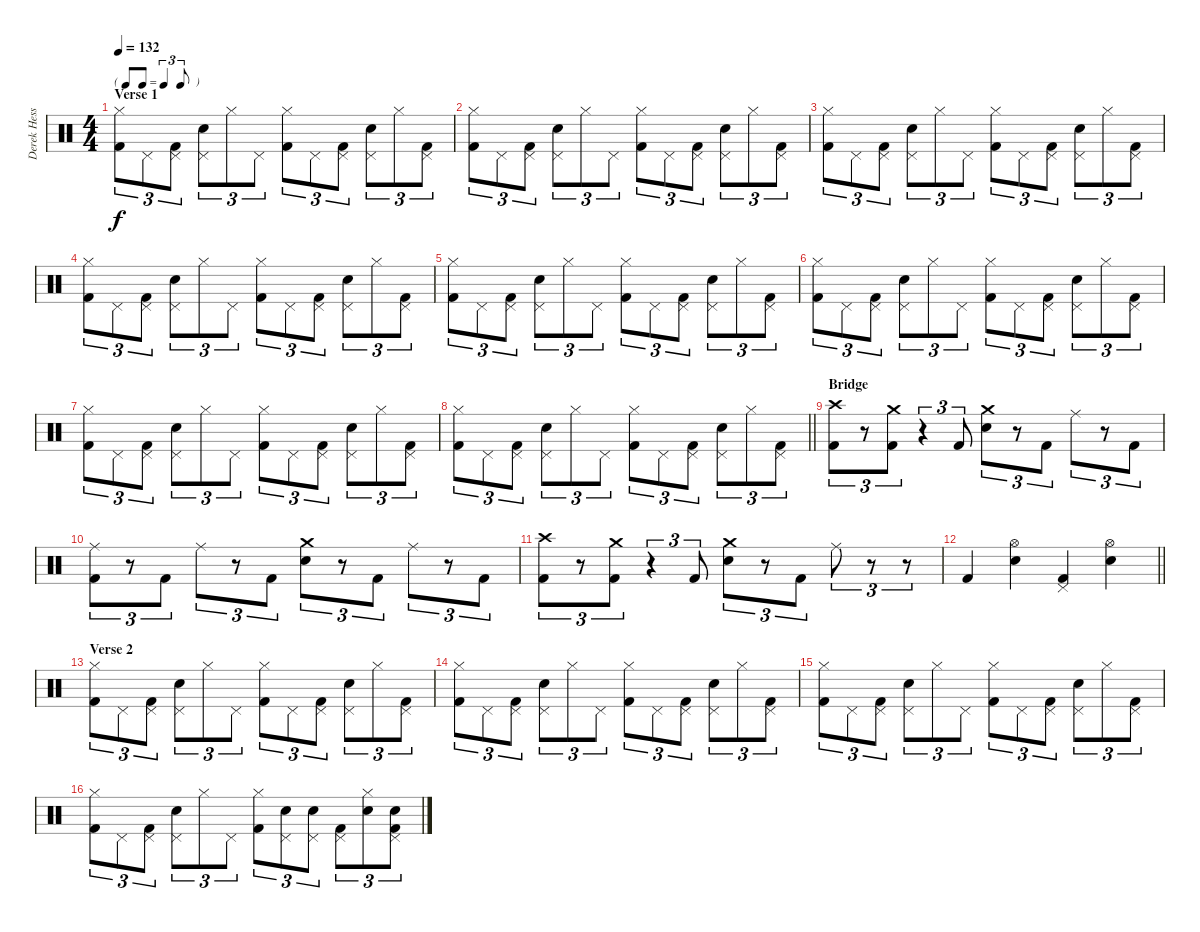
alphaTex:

\track ("Derek Hess (Drums and Percussion)" "Derek Hess") {instrument percussion}
\staff {score}
\articulation defaults
\ts (4 4)
\tf triplet8th
\section ("" "Verse 1")
\tempo 132
\clef neutral
\ks c
("Hi-Hat (closed)" "Kick (hit) 2").8{tu (3 2) dy f} "Pedal Hi-Hat (hit)".8{tu (3 2)} ("Pedal Hi-Hat (hit)" "Kick (hit) 2").8{tu (3 2)} ("Snare (hit) 2" "Pedal Hi-Hat (hit)").8{tu (3 2)} "Hi-Hat (closed)".8{tu (3 2)} "Pedal Hi-Hat (hit)".8{tu (3 2)} ("Hi-Hat (closed)" "Kick (hit) 2").8{tu (3 2)} "Pedal Hi-Hat (hit)".8{tu (3 2)} ("Pedal Hi-Hat (hit)" "Kick (hit) 2").8{tu (3 2)} ("Snare (hit) 2" "Pedal Hi-Hat (hit)").8{tu (3 2)} "Hi-Hat (closed)".8{tu (3 2)} ("Pedal Hi-Hat (hit)" "Kick (hit) 2").8{tu (3 2)} |
("Hi-Hat (closed)" "Kick (hit) 2").8{tu (3 2)} "Pedal Hi-Hat (hit)".8{tu (3 2)} ("Pedal Hi-Hat (hit)" "Kick (hit) 2").8{tu (3 2)} ("Snare (hit) 2" "Pedal Hi-Hat (hit)").8{tu (3 2)} "Hi-Hat (closed)".8{tu (3 2)} "Pedal Hi-Hat (hit)".8{tu (3 2)} ("Hi-Hat (closed)" "Kick (hit) 2").8{tu (3 2)} "Pedal Hi-Hat (hit)".8{tu (3 2)} ("Pedal Hi-Hat (hit)" "Kick (hit) 2").8{tu (3 2)} ("Snare (hit) 2" "Pedal Hi-Hat (hit)").8{tu (3 2)} "Hi-Hat (closed)".8{tu (3 2)} ("Pedal Hi-Hat (hit)" "Kick (hit) 2").8{tu (3 2)} |
("Hi-Hat (closed)" "Kick (hit) 2").8{tu (3 2)} "Pedal Hi-Hat (hit)".8{tu (3 2)} ("Pedal Hi-Hat (hit)" "Kick (hit) 2").8{tu (3 2)} ("Snare (hit) 2" "Pedal Hi-Hat (hit)").8{tu (3 2)} "Hi-Hat (closed)".8{tu (3 2)} "Pedal Hi-Hat (hit)".8{tu (3 2)} ("Hi-Hat (closed)" "Kick (hit) 2").8{tu (3 2)} "Pedal Hi-Hat (hit)".8{tu (3 2)} ("Pedal Hi-Hat (hit)" "Kick (hit) 2").8{tu (3 2)} ("Snare (hit) 2" "Pedal Hi-Hat (hit)").8{tu (3 2)} "Hi-Hat (closed)".8{tu (3 2)} ("Pedal Hi-Hat (hit)" "Kick (hit) 2").8{tu (3 2)} |
("Hi-Hat (closed)" "Kick (hit) 2").8{tu (3 2)} "Pedal Hi-Hat (hit)".8{tu (3 2)} ("Pedal Hi-Hat (hit)" "Kick (hit) 2").8{tu (3 2)} ("Snare (hit) 2" "Pedal Hi-Hat (hit)").8{tu (3 2)} "Hi-Hat (closed)".8{tu (3 2)} "Pedal Hi-Hat (hit)".8{tu (3 2)} ("Hi-Hat (closed)" "Kick (hit) 2").8{tu (3 2)} "Pedal Hi-Hat (hit)".8{tu (3 2)} ("Pedal Hi-Hat (hit)" "Kick (hit) 2").8{tu (3 2)} ("Snare (hit) 2" "Pedal Hi-Hat (hit)").8{tu (3 2)} "Hi-Hat (closed)".8{tu (3 2)} ("Pedal Hi-Hat (hit)" "Kick (hit) 2").8{tu (3 2)} |
("Hi-Hat (closed)" "Kick (hit) 2").8{tu (3 2)} "Pedal Hi-Hat (hit)".8{tu (3 2)} ("Pedal Hi-Hat (hit)" "Kick (hit) 2").8{tu (3 2)} ("Snare (hit) 2" "Pedal Hi-Hat (hit)").8{tu (3 2)} "Hi-Hat (closed)".8{tu (3 2)} "Pedal Hi-Hat (hit)".8{tu (3 2)} ("Hi-Hat (closed)" "Kick (hit) 2").8{tu (3 2)} "Pedal Hi-Hat (hit)".8{tu (3 2)} ("Pedal Hi-Hat (hit)" "Kick (hit) 2").8{tu (3 2)} ("Snare (hit) 2" "Pedal Hi-Hat (hit)").8{tu (3 2)} "Hi-Hat (closed)".8{tu (3 2)} ("Pedal Hi-Hat (hit)" "Kick (hit) 2").8{tu (3 2)} |
("Hi-Hat (closed)" "Kick (hit) 2").8{tu (3 2)} "Pedal Hi-Hat (hit)".8{tu (3 2)} ("Pedal Hi-Hat (hit)" "Kick (hit) 2").8{tu (3 2)} ("Snare (hit) 2" "Pedal Hi-Hat (hit)").8{tu (3 2)} "Hi-Hat (closed)".8{tu (3 2)} "Pedal Hi-Hat (hit)".8{tu (3 2)} ("Hi-Hat (closed)" "Kick (hit) 2").8{tu (3 2)} "Pedal Hi-Hat (hit)".8{tu (3 2)} ("Pedal Hi-Hat (hit)" "Kick (hit) 2").8{tu (3 2)} ("Snare (hit) 2" "Pedal Hi-Hat (hit)").8{tu (3 2)} "Hi-Hat (closed)".8{tu (3 2)} ("Pedal Hi-Hat (hit)" "Kick (hit) 2").8{tu (3 2)} |
("Hi-Hat (closed)" "Kick (hit) 2").8{tu (3 2)} "Pedal Hi-Hat (hit)".8{tu (3 2)} ("Pedal Hi-Hat (hit)" "Kick (hit) 2").8{tu (3 2)} ("Snare (hit) 2" "Pedal Hi-Hat (hit)").8{tu (3 2)} "Hi-Hat (closed)".8{tu (3 2)} "Pedal Hi-Hat (hit)".8{tu (3 2)} ("Hi-Hat (closed)" "Kick (hit) 2").8{tu (3 2)} "Pedal Hi-Hat (hit)".8{tu (3 2)} ("Pedal Hi-Hat (hit)" "Kick (hit) 2").8{tu (3 2)} ("Snare (hit) 2" "Pedal Hi-Hat (hit)").8{tu (3 2)} "Hi-Hat (closed)".8{tu (3 2)} ("Pedal Hi-Hat (hit)" "Kick (hit) 2").8{tu (3 2)} |
\barLineRight lightlight
("Hi-Hat (closed)" "Kick (hit) 2").8{tu (3 2)} "Pedal Hi-Hat (hit)".8{tu (3 2)} ("Pedal Hi-Hat (hit)" "Kick (hit) 2").8{tu (3 2)} ("Snare (hit) 2" "Pedal Hi-Hat (hit)").8{tu (3 2)} "Hi-Hat (closed)".8{tu (3 2)} "Pedal Hi-Hat (hit)".8{tu (3 2)} ("Hi-Hat (closed)" "Kick (hit) 2").8{tu (3 2)} "Pedal Hi-Hat (hit)".8{tu (3 2)} ("Pedal Hi-Hat (hit)" "Kick (hit) 2").8{tu (3 2)} ("Snare (hit) 2" "Pedal Hi-Hat (hit)").8{tu (3 2)} "Hi-Hat (closed)".8{tu (3 2)} ("Pedal Hi-Hat (hit)" "Kick (hit) 2").8{tu (3 2)} |
\section ("" "Bridge")
("Crash high (hit)" "Kick (hit) 2").8{tu (3 2)} r.8{tu (3 2)} ("Crash medium (hit)" "Kick (hit) 2").8{tu (3 2)} r.4{tu (3 2)} "Kick (hit) 2".8{tu (3 2)} ("Crash medium (hit)" "Snare (hit) 2").8{tu (3 2)} r.8{tu (3 2)} "Kick (hit) 2".8{tu (3 2)} "Ride (middle)".8{tu (3 2)} r.8{tu (3 2)} "Kick (hit) 2".8{tu (3 2)} |
("Ride (middle)" "Kick (hit) 2").8{tu (3 2)} r.8{tu (3 2)} "Kick (hit) 2".8{tu (3 2)} "Ride (middle)".8{tu (3 2)} r.8{tu (3 2)} "Kick (hit) 2".8{tu (3 2)} ("Crash medium (hit)" "Snare (hit) 2").8{tu (3 2)} r.8{tu (3 2)} "Kick (hit) 2".8{tu (3 2)} "Ride (middle)".8{tu (3 2)} r.8{tu (3 2)} "Kick (hit) 2".8{tu (3 2)} |
("Crash high (hit)" "Kick (hit) 2").8{tu (3 2)} r.8{tu (3 2)} ("Crash medium (hit)" "Kick (hit) 2").8{tu (3 2)} r.4{tu (3 2)} "Kick (hit) 2".8{tu (3 2)} ("Crash medium (hit)" "Snare (hit) 2").8{tu (3 2)} r.8{tu (3 2)} "Kick (hit) 2".8{tu (3 2)} "Ride (middle)".8{tu (3 2)} r.8{tu (3 2)} r.8{tu (3 2)} |
\barLineRight lightlight "Kick (hit) 2".4
("Snare (hit) 2" "Hi-Hat (open)").4 ("Pedal Hi-Hat (hit)" "Kick (hit) 2").4 ("Snare (hit) 2" "Hi-Hat (open)").4 |
\section ("" "Verse 2")
("Hi-Hat (closed)" "Kick (hit) 2").8{tu (3 2)} "Pedal Hi-Hat (hit)".8{tu (3 2)} ("Pedal Hi-Hat (hit)" "Kick (hit) 2").8{tu (3 2)} ("Snare (hit) 2" "Pedal Hi-Hat (hit)").8{tu (3 2)} "Hi-Hat (closed)".8{tu (3 2)} "Pedal Hi-Hat (hit)".8{tu (3 2)} ("Hi-Hat (closed)" "Kick (hit) 2").8{tu (3 2)} "Pedal Hi-Hat (hit)".8{tu (3 2)} ("Pedal Hi-Hat (hit)" "Kick (hit) 2").8{tu (3 2)} ("Snare (hit) 2" "Pedal Hi-Hat (hit)").8{tu (3 2)} "Hi-Hat (closed)".8{tu (3 2)} ("Pedal Hi-Hat (hit)" "Kick (hit) 2").8{tu (3 2)} |
("Hi-Hat (closed)" "Kick (hit) 2").8{tu (3 2)} "Pedal Hi-Hat (hit)".8{tu (3 2)} ("Pedal Hi-Hat (hit)" "Kick (hit) 2").8{tu (3 2)} ("Snare (hit) 2" "Pedal Hi-Hat (hit)").8{tu (3 2)} "Hi-Hat (closed)".8{tu (3 2)} "Pedal Hi-Hat (hit)".8{tu (3 2)} ("Hi-Hat (closed)" "Kick (hit) 2").8{tu (3 2)} "Pedal Hi-Hat (hit)".8{tu (3 2)} ("Pedal Hi-Hat (hit)" "Kick (hit) 2").8{tu (3 2)} ("Snare (hit) 2" "Pedal Hi-Hat (hit)").8{tu (3 2)} "Hi-Hat (closed)".8{tu (3 2)} ("Pedal Hi-Hat (hit)" "Kick (hit) 2").8{tu (3 2)} |
("Hi-Hat (closed)" "Kick (hit) 2").8{tu (3 2)} "Pedal Hi-Hat (hit)".8{tu (3 2)} ("Pedal Hi-Hat (hit)" "Kick (hit) 2").8{tu (3 2)} ("Snare (hit) 2" "Pedal Hi-Hat (hit)").8{tu (3 2)} "Hi-Hat (closed)".8{tu (3 2)} "Pedal Hi-Hat (hit)".8{tu (3 2)} ("Hi-Hat (closed)" "Kick (hit) 2").8{tu (3 2)} "Pedal Hi-Hat (hit)".8{tu (3 2)} ("Pedal Hi-Hat (hit)" "Kick (hit) 2").8{tu (3 2)} ("Snare (hit) 2" "Pedal Hi-Hat (hit)").8{tu (3 2)} "Hi-Hat (closed)".8{tu (3 2)} ("Pedal Hi-Hat (hit)" "Kick (hit) 2").8{tu (3 2)} |
("Hi-Hat (closed)" "Kick (hit) 2").8{tu (3 2)} "Pedal Hi-Hat (hit)".8{tu (3 2)} ("Pedal Hi-Hat (hit)" "Kick (hit) 2").8{tu (3 2)} ("Snare (hit) 2" "Pedal Hi-Hat (hit)").8{tu (3 2)} "Hi-Hat (closed)".8{tu (3 2)} "Pedal Hi-Hat (hit)".8{tu (3 2)} ("Hi-Hat (closed)" "Kick (hit) 2").8{tu (3 2)} ("Snare (hit) 2" "Pedal Hi-Hat (hit)").8{tu (3 2)} ("Snare (hit) 2" "Pedal Hi-Hat (hit)").8{tu (3 2)} ("Pedal Hi-Hat (hit)" "Kick (hit) 2").8{tu (3 2)} ("Snare (hit) 2" "Hi-Hat (closed)").8{tu (3 2)} ("Snare (hit) 2" "Pedal Hi-Hat (hit)" "Kick (hit) 2").8{tu (3 2)}
